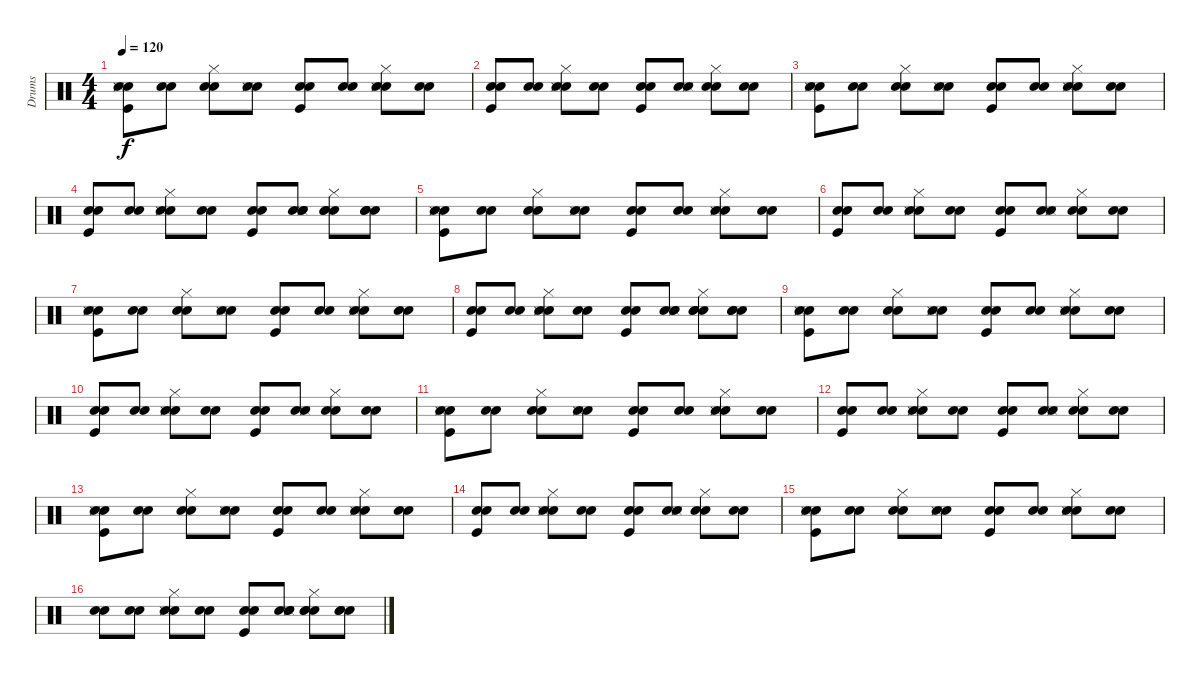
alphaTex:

\track ("Drums" "Drums") {instrument percussion}
\staff {score}
\articulation defaults
\ts (4 4)
\tempo 120
\clef neutral
\ks c
("Snare (hit)" "Kick (hit)" "Snare (hit) 2" "Snare (side stick) 3").8{dy f} ("Snare (hit)" "Snare (hit) 2").8 ("Snare (hit)" "Snare (hit) 2" "Hi-Hat (closed)").8 ("Snare (hit)" "Snare (hit) 2" "Snare (side stick) 3").8 ("Snare (hit)" "Kick (hit)" "Snare (hit) 2").8 ("Snare (hit)" "Snare (hit) 2").8 ("Snare (hit)" "Snare (hit) 2" "Hi-Hat (closed)" "Snare (side stick) 3").8 ("Snare (hit)" "Snare (hit) 2").8 |
("Snare (hit)" "Kick (hit)" "Snare (hit) 2").8 ("Snare (hit)" "Snare (hit) 2").8 ("Snare (hit)" "Snare (hit) 2" "Hi-Hat (closed)" "Snare (side stick) 3").8 ("Snare (hit)" "Hand Clap (hit)").8 ("Snare (hit)" "Kick (hit)" "Snare (hit) 2").8 ("Snare (hit)" "Snare (hit) 2" "Snare (side stick) 3").8 ("Snare (hit)" "Snare (hit) 2" "Hi-Hat (closed)").8 ("Snare (hit)" "Snare (hit) 2").8 |
("Snare (hit)" "Kick (hit)" "Snare (hit) 2" "Snare (side stick) 3").8 ("Snare (hit)" "Snare (hit) 2").8 ("Snare (hit)" "Snare (hit) 2" "Hi-Hat (closed)").8 ("Snare (hit)" "Snare (hit) 2" "Snare (side stick) 3").8 ("Snare (hit)" "Kick (hit)" "Snare (hit) 2").8 ("Snare (hit)" "Snare (hit) 2").8 ("Snare (hit)" "Snare (hit) 2" "Hi-Hat (closed)" "Snare (side stick) 3").8 ("Snare (hit)" "Snare (hit) 2").8 |
("Snare (hit)" "Kick (hit)" "Snare (hit) 2").8 ("Snare (hit)" "Snare (hit) 2").8 ("Snare (hit)" "Snare (hit) 2" "Hi-Hat (closed)" "Snare (side stick) 3").8 ("Snare (hit)" "Hand Clap (hit)").8 ("Snare (hit)" "Kick (hit)" "Snare (hit) 2").8 ("Snare (hit)" "Snare (hit) 2" "Snare (side stick) 3" "Hand Clap (hit)").8 ("Snare (hit)" "Snare (hit) 2" "Hi-Hat (closed)" "Hand Clap (hit)").8 ("Snare (hit)" "Snare (hit) 2" "Hand Clap (hit)").8 |
("Snare (hit)" "Kick (hit)" "Snare (hit) 2" "Snare (side stick) 3").8 ("Snare (hit)" "Snare (hit) 2").8 ("Snare (hit)" "Snare (hit) 2" "Hi-Hat (closed)").8 ("Snare (hit)" "Snare (hit) 2" "Snare (side stick) 3").8 ("Snare (hit)" "Kick (hit)" "Snare (hit) 2").8 ("Snare (hit)" "Snare (hit) 2").8 ("Snare (hit)" "Snare (hit) 2" "Hi-Hat (closed)" "Snare (side stick) 3").8 ("Snare (hit)" "Snare (hit) 2").8 |
("Snare (hit)" "Kick (hit)" "Snare (hit) 2").8 ("Snare (hit)" "Snare (hit) 2").8 ("Snare (hit)" "Snare (hit) 2" "Hi-Hat (closed)" "Snare (side stick) 3").8 ("Snare (hit)" "Hand Clap (hit)").8 ("Snare (hit)" "Kick (hit)" "Snare (hit) 2").8 ("Snare (hit)" "Snare (hit) 2" "Snare (side stick) 3").8 ("Snare (hit)" "Snare (hit) 2" "Hi-Hat (closed)").8 ("Snare (hit)" "Snare (hit) 2").8 |
("Snare (hit)" "Kick (hit)" "Snare (hit) 2" "Snare (side stick) 3").8 ("Snare (hit)" "Snare (hit) 2").8 ("Snare (hit)" "Snare (hit) 2" "Hi-Hat (closed)").8 ("Snare (hit)" "Snare (hit) 2" "Snare (side stick) 3").8 ("Snare (hit)" "Kick (hit)" "Snare (hit) 2").8 ("Snare (hit)" "Snare (hit) 2").8 ("Snare (hit)" "Snare (hit) 2" "Hi-Hat (closed)" "Snare (side stick) 3").8 ("Snare (hit)" "Snare (hit) 2").8 |
("Snare (hit)" "Kick (hit)" "Snare (hit) 2").8 ("Snare (hit)" "Snare (hit) 2").8 ("Snare (hit)" "Snare (hit) 2" "Hi-Hat (closed)" "Snare (side stick) 3").8 ("Snare (hit)" "Hand Clap (hit)").8 ("Snare (hit)" "Kick (hit)" "Snare (hit) 2").8 ("Snare (hit)" "Snare (hit) 2" "Snare (side stick) 3" "Hand Clap (hit)").8 ("Snare (hit)" "Snare (hit) 2" "Hi-Hat (closed)" "Hand Clap (hit)").8 ("Snare (hit)" "Snare (hit) 2" "Hand Clap (hit)").8 |
("Snare (hit)" "Kick (hit)" "Snare (hit) 2" "Snare (side stick) 3").8 ("Snare (hit)" "Snare (hit) 2").8 ("Snare (hit)" "Snare (hit) 2" "Hi-Hat (closed)").8 ("Snare (hit)" "Snare (hit) 2" "Snare (side stick) 3").8 ("Snare (hit)" "Kick (hit)" "Snare (hit) 2").8 ("Snare (hit)" "Snare (hit) 2").8 ("Snare (hit)" "Snare (hit) 2" "Hi-Hat (closed)" "Snare (side stick) 3").8 ("Snare (hit)" "Snare (hit) 2").8 |
("Snare (hit)" "Kick (hit)" "Snare (hit) 2").8 ("Snare (hit)" "Snare (hit) 2").8 ("Snare (hit)" "Snare (hit) 2" "Hi-Hat (closed)" "Snare (side stick) 3").8 ("Snare (hit)" "Hand Clap (hit)").8 ("Snare (hit)" "Kick (hit)" "Snare (hit) 2").8 ("Snare (hit)" "Snare (hit) 2" "Snare (side stick) 3").8 ("Snare (hit)" "Snare (hit) 2" "Hi-Hat (closed)").8 ("Snare (hit)" "Snare (hit) 2").8 |
("Snare (hit)" "Kick (hit)" "Snare (hit) 2" "Snare (side stick) 3").8 ("Snare (hit)" "Snare (hit) 2").8 ("Snare (hit)" "Snare (hit) 2" "Hi-Hat (closed)").8 ("Snare (hit)" "Snare (hit) 2" "Snare (side stick) 3").8 ("Snare (hit)" "Kick (hit)" "Snare (hit) 2").8 ("Snare (hit)" "Snare (hit) 2").8 ("Snare (hit)" "Snare (hit) 2" "Hi-Hat (closed)" "Snare (side stick) 3").8 ("Snare (hit)" "Snare (hit) 2").8 |
("Snare (hit)" "Kick (hit)" "Snare (hit) 2").8 ("Snare (hit)" "Snare (hit) 2").8 ("Snare (hit)" "Snare (hit) 2" "Hi-Hat (closed)" "Snare (side stick) 3").8 ("Snare (hit)" "Hand Clap (hit)").8 ("Snare (hit)" "Kick (hit)" "Snare (hit) 2").8 ("Snare (hit)" "Snare (hit) 2" "Snare (side stick) 3").8 ("Snare (hit)" "Snare (hit) 2" "Hi-Hat (closed)").8 ("Snare (hit)" "Snare (hit) 2").8 |
("Snare (hit)" "Kick (hit)" "Snare (hit) 2" "Snare (side stick) 3").8 ("Snare (hit)" "Snare (hit) 2").8 ("Snare (hit)" "Snare (hit) 2" "Hi-Hat (closed)").8 ("Snare (hit)" "Snare (hit) 2" "Snare (side stick) 3").8 ("Snare (hit)" "Kick (hit)" "Snare (hit) 2").8 ("Snare (hit)" "Snare (hit) 2").8 ("Snare (hit)" "Snare (hit) 2" "Hi-Hat (closed)" "Snare (side stick) 3").8 ("Snare (hit)" "Snare (hit) 2").8 |
("Snare (hit)" "Kick (hit)" "Snare (hit) 2").8 ("Snare (hit)" "Snare (hit) 2").8 ("Snare (hit)" "Snare (hit) 2" "Hi-Hat (closed)" "Snare (side stick) 3").8 ("Snare (hit)" "Hand Clap (hit)").8 ("Snare (hit)" "Kick (hit)" "Snare (hit) 2").8 ("Snare (hit)" "Snare (hit) 2" "Snare (side stick) 3").8 ("Snare (hit)" "Snare (hit) 2" "Hi-Hat (closed)").8 ("Snare (hit)" "Snare (hit) 2").8 |
("Snare (hit)" "Kick (hit)" "Snare (hit) 2" "Snare (side stick) 3").8 ("Snare (hit)" "Snare (hit) 2").8 ("Snare (hit)" "Snare (hit) 2" "Hi-Hat (closed)").8 ("Snare (hit)" "Snare (hit) 2" "Snare (side stick) 3").8 ("Snare (hit)" "Kick (hit)" "Snare (hit) 2").8 ("Snare (hit)" "Snare (hit) 2").8 ("Snare (hit)" "Snare (hit) 2" "Hi-Hat (closed)" "Snare (side stick) 3").8 ("Snare (hit)" "Snare (hit) 2").8 |
("Snare (hit)" "Snare (hit) 2").8 ("Snare (hit)" "Snare (hit) 2").8 ("Snare (hit)" "Snare (hit) 2" "Hi-Hat (closed)" "Snare (side stick) 3").8 ("Snare (hit)" "Hand Clap (hit)").8 ("Snare (hit)" "Kick (hit)" "Snare (hit) 2").8 ("Snare (hit)" "Snare (hit) 2" "Snare (side stick) 3" "Hand Clap (hit)").8 ("Snare (hit)" "Snare (hit) 2" "Hi-Hat (closed)" "Hand Clap (hit)").8 ("Snare (hit)" "Snare (hit) 2" "Hand Clap (hit)").8
